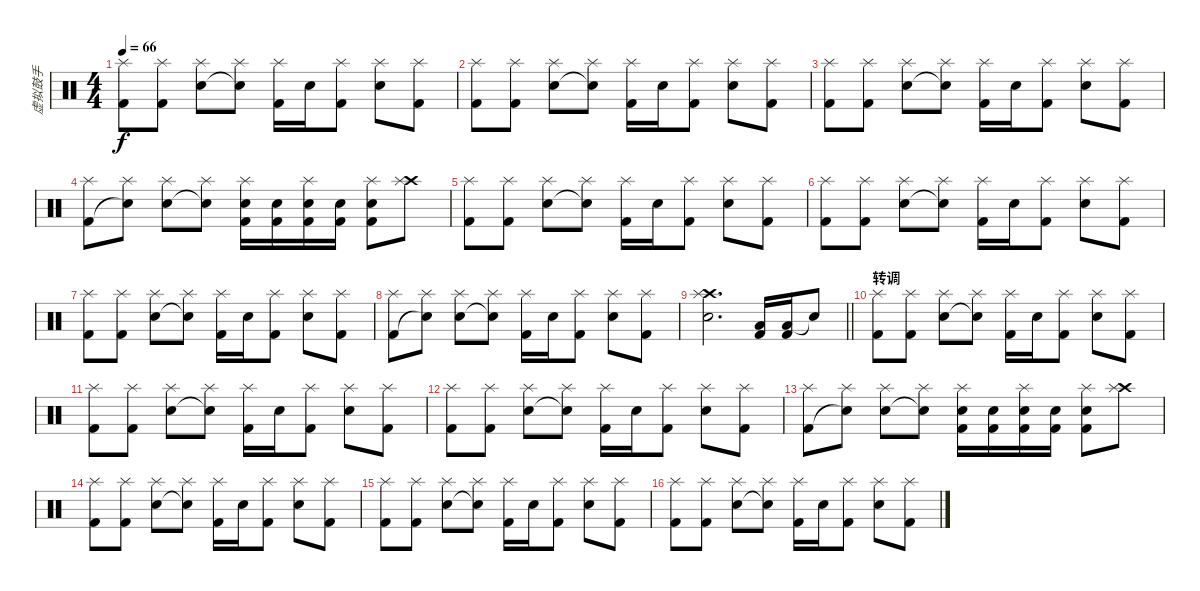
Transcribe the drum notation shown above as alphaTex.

\track ("虚拟鼓手" "虚拟鼓手") {instrument percussion}
\staff {score}
\articulation defaults
\ts (4 4)
\tempo 66
\clef neutral
\ks c
("Splash (hit)" "Kick (hit) 2").8{dy f} ("Splash (hit)" "Kick (hit) 2").8 ("Splash (hit)" "Electric Snare (hit)").8 ("Splash (hit)" "Snare (hit)"{t}).8 ("Splash (hit)" "Kick (hit) 2").16 "Electric Snare (hit)".16 ("Splash (hit)" "Kick (hit) 2").8 ("Splash (hit)" "Electric Snare (hit)").8 ("Splash (hit)" "Kick (hit) 2").8 |
("Splash (hit)" "Kick (hit) 2").8 ("Splash (hit)" "Kick (hit) 2").8 ("Splash (hit)" "Electric Snare (hit)").8 ("Splash (hit)" "Snare (hit)"{t}).8 ("Splash (hit)" "Kick (hit) 2").16 "Electric Snare (hit)".16 ("Splash (hit)" "Kick (hit) 2").8 ("Splash (hit)" "Electric Snare (hit)").8 ("Splash (hit)" "Kick (hit) 2").8 |
("Splash (hit)" "Kick (hit) 2").8 ("Splash (hit)" "Kick (hit) 2").8 ("Splash (hit)" "Electric Snare (hit)").8 ("Splash (hit)" "Snare (hit)"{t}).8 ("Splash (hit)" "Kick (hit) 2").16 "Electric Snare (hit)".16 ("Splash (hit)" "Kick (hit) 2").8 ("Splash (hit)" "Electric Snare (hit)").8 ("Splash (hit)" "Kick (hit) 2").8 |
("Splash (hit)" "Kick (hit) 2").8 ("Splash (hit)" "Snare (hit)"{t}).8 ("Splash (hit)" "Electric Snare (hit)").8 ("Splash (hit)" "Snare (hit)"{t}).8 ("Splash (hit)" "Electric Snare (hit)" "Kick (hit) 2").16 ("Electric Snare (hit)" "Kick (hit) 2").16 ("Splash (hit)" "Electric Snare (hit)" "Kick (hit) 2").16 ("Electric Snare (hit)" "Kick (hit) 2").16 ("Splash (hit)" "Electric Snare (hit)" "Kick (hit) 2").8 ("Crash high (hit)" "Splash (hit)").8 |
("Splash (hit)" "Kick (hit) 2").8 ("Splash (hit)" "Kick (hit) 2").8 ("Splash (hit)" "Electric Snare (hit)").8 ("Splash (hit)" "Snare (hit)"{t}).8 ("Splash (hit)" "Kick (hit) 2").16 "Electric Snare (hit)".16 ("Splash (hit)" "Kick (hit) 2").8 ("Splash (hit)" "Electric Snare (hit)").8 ("Splash (hit)" "Kick (hit) 2").8 |
("Splash (hit)" "Kick (hit) 2").8 ("Splash (hit)" "Kick (hit) 2").8 ("Splash (hit)" "Electric Snare (hit)").8 ("Splash (hit)" "Snare (hit)"{t}).8 ("Splash (hit)" "Kick (hit) 2").16 "Electric Snare (hit)".16 ("Splash (hit)" "Kick (hit) 2").8 ("Splash (hit)" "Electric Snare (hit)").8 ("Splash (hit)" "Kick (hit) 2").8 |
("Splash (hit)" "Kick (hit) 2").8 ("Splash (hit)" "Kick (hit) 2").8 ("Splash (hit)" "Electric Snare (hit)").8 ("Splash (hit)" "Snare (hit)"{t}).8 ("Splash (hit)" "Kick (hit) 2").16 "Electric Snare (hit)".16 ("Splash (hit)" "Kick (hit) 2").8 ("Splash (hit)" "Electric Snare (hit)").8 ("Splash (hit)" "Kick (hit) 2").8 |
("Splash (hit)" "Kick (hit) 2").8 ("Splash (hit)" "Snare (hit)"{t}).8 ("Splash (hit)" "Electric Snare (hit)").8 ("Splash (hit)" "Snare (hit)"{t}).8 ("Splash (hit)" "Kick (hit) 2").16 "Electric Snare (hit)".16 ("Splash (hit)" "Kick (hit) 2").8 ("Splash (hit)" "Electric Snare (hit)").8 ("Splash (hit)" "Kick (hit) 2").8 |
\barLineRight lightlight
("Crash high (hit)" "Splash (hit)" "Snare (hit)").2{d} ("Low Tom (hit)" "Kick (hit) 2").16 ("Low Tom (hit)" "Kick (hit) 2").16 "Snare (hit)"{t}.8 |
\section ("" "转调")
("Splash (hit)" "Kick (hit) 2").8 ("Splash (hit)" "Kick (hit) 2").8 ("Splash (hit)" "Electric Snare (hit)").8 ("Splash (hit)" "Snare (hit)"{t}).8 ("Splash (hit)" "Kick (hit) 2").16 "Electric Snare (hit)".16 ("Splash (hit)" "Kick (hit) 2").8 ("Splash (hit)" "Electric Snare (hit)").8 ("Splash (hit)" "Kick (hit) 2").8 |
("Splash (hit)" "Kick (hit) 2").8 ("Splash (hit)" "Kick (hit) 2").8 ("Splash (hit)" "Electric Snare (hit)").8 ("Splash (hit)" "Snare (hit)"{t}).8 ("Splash (hit)" "Kick (hit) 2").16 "Electric Snare (hit)".16 ("Splash (hit)" "Kick (hit) 2").8 ("Splash (hit)" "Electric Snare (hit)").8 ("Splash (hit)" "Kick (hit) 2").8 |
("Splash (hit)" "Kick (hit) 2").8 ("Splash (hit)" "Kick (hit) 2").8 ("Splash (hit)" "Electric Snare (hit)").8 ("Splash (hit)" "Snare (hit)"{t}).8 ("Splash (hit)" "Kick (hit) 2").16 "Electric Snare (hit)".16 ("Splash (hit)" "Kick (hit) 2").8 ("Splash (hit)" "Electric Snare (hit)").8 ("Splash (hit)" "Kick (hit) 2").8 |
("Splash (hit)" "Kick (hit) 2").8 ("Splash (hit)" "Snare (hit)"{t}).8 ("Splash (hit)" "Electric Snare (hit)").8 ("Splash (hit)" "Snare (hit)"{t}).8 ("Splash (hit)" "Electric Snare (hit)" "Kick (hit) 2").16 ("Electric Snare (hit)" "Kick (hit) 2").16 ("Splash (hit)" "Electric Snare (hit)" "Kick (hit) 2").16 ("Electric Snare (hit)" "Kick (hit) 2").16 ("Splash (hit)" "Electric Snare (hit)" "Kick (hit) 2").8 ("Crash high (hit)" "Splash (hit)").8 |
("Splash (hit)" "Kick (hit) 2").8 ("Splash (hit)" "Kick (hit) 2").8 ("Splash (hit)" "Electric Snare (hit)").8 ("Splash (hit)" "Snare (hit)"{t}).8 ("Splash (hit)" "Kick (hit) 2").16 "Electric Snare (hit)".16 ("Splash (hit)" "Kick (hit) 2").8 ("Splash (hit)" "Electric Snare (hit)").8 ("Splash (hit)" "Kick (hit) 2").8 |
("Splash (hit)" "Kick (hit) 2").8 ("Splash (hit)" "Kick (hit) 2").8 ("Splash (hit)" "Electric Snare (hit)").8 ("Splash (hit)" "Snare (hit)"{t}).8 ("Splash (hit)" "Kick (hit) 2").16 "Electric Snare (hit)".16 ("Splash (hit)" "Kick (hit) 2").8 ("Splash (hit)" "Electric Snare (hit)").8 ("Splash (hit)" "Kick (hit) 2").8 |
("Splash (hit)" "Kick (hit) 2").8 ("Splash (hit)" "Kick (hit) 2").8 ("Splash (hit)" "Electric Snare (hit)").8 ("Splash (hit)" "Snare (hit)"{t}).8 ("Splash (hit)" "Kick (hit) 2").16 "Electric Snare (hit)".16 ("Splash (hit)" "Kick (hit) 2").8 ("Splash (hit)" "Electric Snare (hit)").8 ("Splash (hit)" "Kick (hit) 2").8
